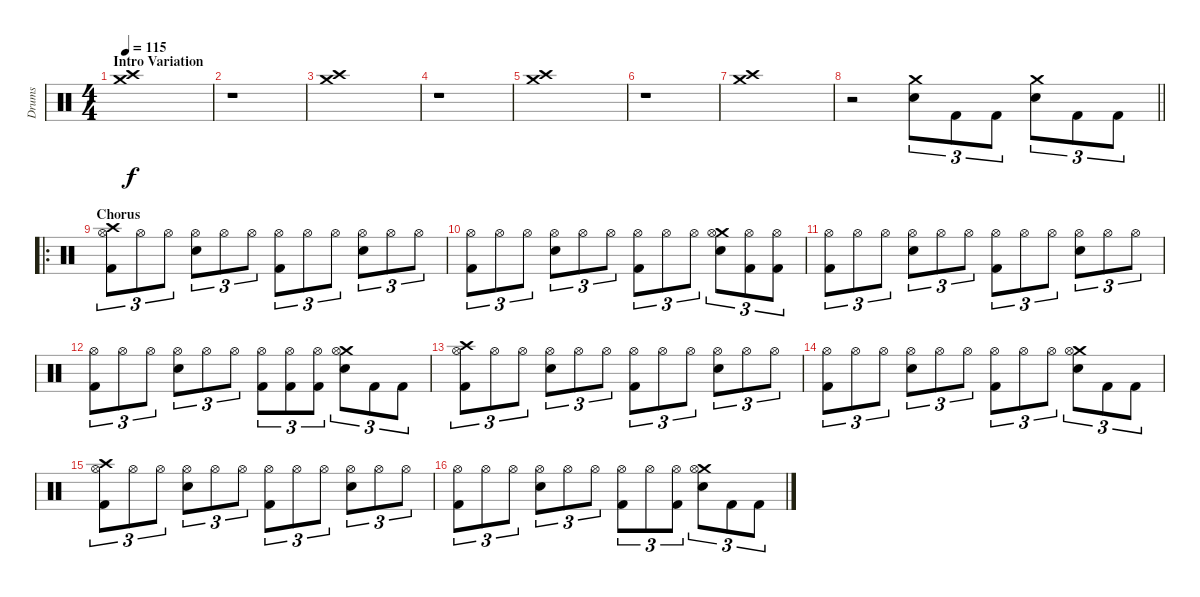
\track ("Drums" "Drums") {instrument percussion}
\staff {score}
\articulation defaults
\ts (4 4)
\section ("" "Intro Variation")
\tempo 115
\clef neutral
\ks c
("Crash high (hit)" "Crash medium (hit)").1{dy f} |
r.1 |
("Crash high (hit)" "Crash medium (hit)").1 |
r.1 |
("Crash high (hit)" "Crash medium (hit)").1 |
r.1 |
("Crash high (hit)" "Crash medium (hit)").1 |
\barLineRight lightlight
r.2 ("Crash medium (hit)" "Snare (hit) 2").8{tu (3 2)} "Kick (hit) 2".8{tu (3 2)} "Kick (hit) 2".8{tu (3 2)} ("Crash medium (hit)" "Snare (hit) 2").8{tu (3 2)} "Kick (hit) 2".8{tu (3 2)} "Kick (hit) 2".8{tu (3 2)} |
\ro
\section ("" "Chorus")
("Crash high (hit)" "Hi-Hat (open)" "Kick (hit) 2").8{tu (3 2)} "Hi-Hat (open)".8{tu (3 2)} "Hi-Hat (open)".8{tu (3 2)} ("Hi-Hat (open)" "Snare (hit) 2").8{tu (3 2)} "Hi-Hat (open)".8{tu (3 2)} "Hi-Hat (open)".8{tu (3 2)} ("Hi-Hat (open)" "Kick (hit) 2").8{tu (3 2)} "Hi-Hat (open)".8{tu (3 2)} "Hi-Hat (open)".8{tu (3 2)} ("Hi-Hat (open)" "Snare (hit) 2").8{tu (3 2)} "Hi-Hat (open)".8{tu (3 2)} "Hi-Hat (open)".8{tu (3 2)} |
("Hi-Hat (open)" "Kick (hit) 2").8{tu (3 2)} "Hi-Hat (open)".8{tu (3 2)} "Hi-Hat (open)".8{tu (3 2)} ("Hi-Hat (open)" "Snare (hit) 2").8{tu (3 2)} "Hi-Hat (open)".8{tu (3 2)} "Hi-Hat (open)".8{tu (3 2)} ("Hi-Hat (open)" "Kick (hit) 2").8{tu (3 2)} "Hi-Hat (open)".8{tu (3 2)} "Hi-Hat (open)".8{tu (3 2)} ("Crash medium (hit)" "Hi-Hat (open)" "Snare (hit) 2").8{tu (3 2)} ("Hi-Hat (open)" "Kick (hit) 2").8{tu (3 2)} ("Hi-Hat (open)" "Kick (hit) 2").8{tu (3 2)} |
("Hi-Hat (open)" "Kick (hit) 2").8{tu (3 2)} "Hi-Hat (open)".8{tu (3 2)} "Hi-Hat (open)".8{tu (3 2)} ("Hi-Hat (open)" "Snare (hit) 2").8{tu (3 2)} "Hi-Hat (open)".8{tu (3 2)} "Hi-Hat (open)".8{tu (3 2)} ("Hi-Hat (open)" "Kick (hit) 2").8{tu (3 2)} "Hi-Hat (open)".8{tu (3 2)} "Hi-Hat (open)".8{tu (3 2)} ("Hi-Hat (open)" "Snare (hit) 2").8{tu (3 2)} "Hi-Hat (open)".8{tu (3 2)} "Hi-Hat (open)".8{tu (3 2)} |
("Hi-Hat (open)" "Kick (hit) 2").8{tu (3 2)} "Hi-Hat (open)".8{tu (3 2)} "Hi-Hat (open)".8{tu (3 2)} ("Hi-Hat (open)" "Snare (hit) 2").8{tu (3 2)} "Hi-Hat (open)".8{tu (3 2)} "Hi-Hat (open)".8{tu (3 2)} ("Hi-Hat (open)" "Kick (hit) 2").8{tu (3 2)} ("Hi-Hat (open)" "Kick (hit) 2").8{tu (3 2)} ("Hi-Hat (open)" "Kick (hit) 2").8{tu (3 2)} ("Crash medium (hit)" "Hi-Hat (open)" "Snare (hit) 2").8{tu (3 2)} "Kick (hit) 2".8{tu (3 2)} "Kick (hit) 2".8{tu (3 2)} |
("Crash high (hit)" "Hi-Hat (open)" "Kick (hit) 2").8{tu (3 2)} "Hi-Hat (open)".8{tu (3 2)} "Hi-Hat (open)".8{tu (3 2)} ("Hi-Hat (open)" "Snare (hit) 2").8{tu (3 2)} "Hi-Hat (open)".8{tu (3 2)} "Hi-Hat (open)".8{tu (3 2)} ("Hi-Hat (open)" "Kick (hit) 2").8{tu (3 2)} "Hi-Hat (open)".8{tu (3 2)} "Hi-Hat (open)".8{tu (3 2)} ("Hi-Hat (open)" "Snare (hit) 2").8{tu (3 2)} "Hi-Hat (open)".8{tu (3 2)} "Hi-Hat (open)".8{tu (3 2)} |
("Hi-Hat (open)" "Kick (hit) 2").8{tu (3 2)} "Hi-Hat (open)".8{tu (3 2)} "Hi-Hat (open)".8{tu (3 2)} ("Hi-Hat (open)" "Snare (hit) 2").8{tu (3 2)} "Hi-Hat (open)".8{tu (3 2)} "Hi-Hat (open)".8{tu (3 2)} ("Hi-Hat (open)" "Kick (hit) 2").8{tu (3 2)} "Hi-Hat (open)".8{tu (3 2)} "Hi-Hat (open)".8{tu (3 2)} ("Crash medium (hit)" "Hi-Hat (open)" "Snare (hit) 2").8{tu (3 2)} "Kick (hit) 2".8{tu (3 2)} "Kick (hit) 2".8{tu (3 2)} |
("Crash high (hit)" "Hi-Hat (open)" "Kick (hit) 2").8{tu (3 2)} "Hi-Hat (open)".8{tu (3 2)} "Hi-Hat (open)".8{tu (3 2)} ("Hi-Hat (open)" "Snare (hit) 2").8{tu (3 2)} "Hi-Hat (open)".8{tu (3 2)} "Hi-Hat (open)".8{tu (3 2)} ("Hi-Hat (open)" "Kick (hit) 2").8{tu (3 2)} "Hi-Hat (open)".8{tu (3 2)} "Hi-Hat (open)".8{tu (3 2)} ("Hi-Hat (open)" "Snare (hit) 2").8{tu (3 2)} "Hi-Hat (open)".8{tu (3 2)} "Hi-Hat (open)".8{tu (3 2)} |
("Hi-Hat (open)" "Kick (hit) 2").8{tu (3 2)} "Hi-Hat (open)".8{tu (3 2)} "Hi-Hat (open)".8{tu (3 2)} ("Hi-Hat (open)" "Snare (hit) 2").8{tu (3 2)} "Hi-Hat (open)".8{tu (3 2)} "Hi-Hat (open)".8{tu (3 2)} ("Hi-Hat (open)" "Kick (hit) 2").8{tu (3 2)} "Hi-Hat (open)".8{tu (3 2)} ("Hi-Hat (open)" "Kick (hit) 2").8{tu (3 2)} ("Crash medium (hit)" "Hi-Hat (open)" "Snare (hit) 2").8{tu (3 2)} "Kick (hit) 2".8{tu (3 2)} "Kick (hit) 2".8{tu (3 2)}
